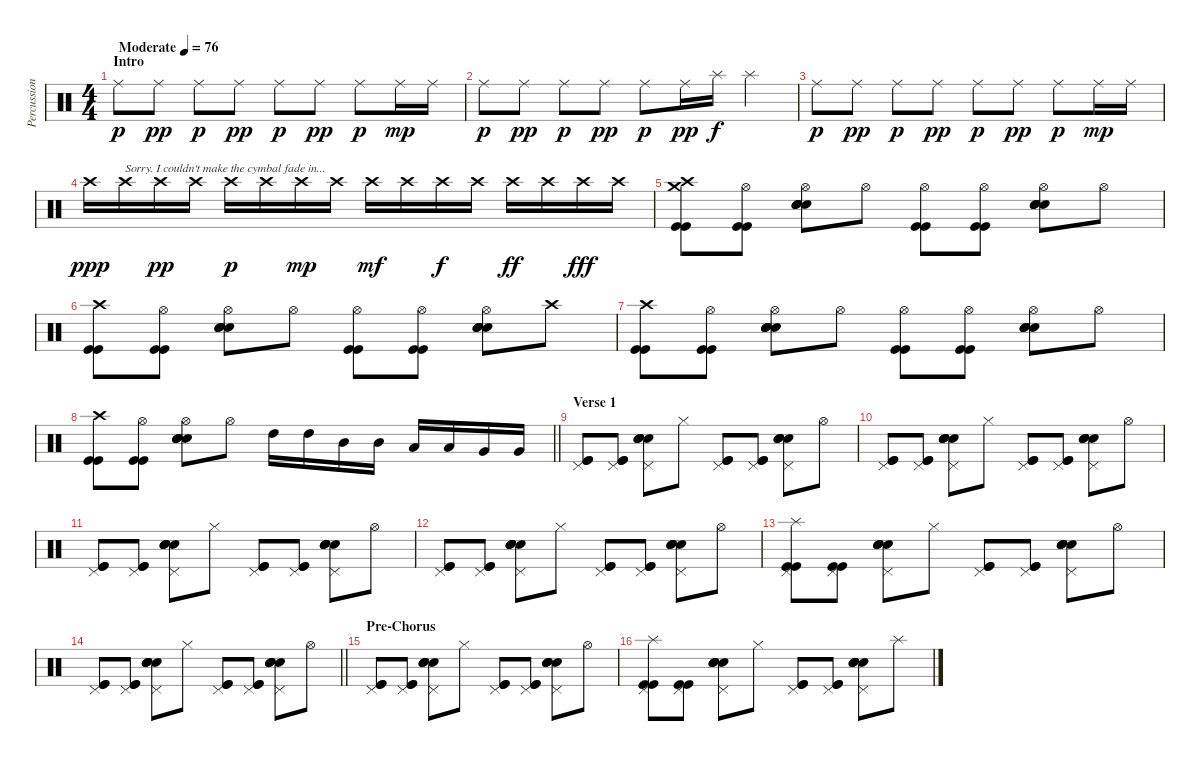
\track ("Percussion" "Percussion") {instrument percussion}
\staff {score}
\articulation defaults
\ts (4 4)
\section ("" "Intro")
\tempo (76 "Moderate")
\clef neutral
\ks c "Ride (middle)".8{dy p} "Ride (middle)".8{dy pp} "Ride (middle)".8{dy p} "Ride (middle)".8{dy pp} "Ride (middle)".8{dy p} "Ride (middle)".8{dy pp} "Ride (middle)".8{dy p} "Ride (middle)".16{dy mp} "Ride (middle)".16
|
"Ride (middle)".8{dy p} "Ride (middle)".8{dy pp} "Ride (middle)".8{dy p} "Ride (middle)".8{dy pp} "Ride (middle)".8{dy p} "Ride (middle)".16{dy pp} "Splash (hit)".16{dy f} "Splash (hit)".4 |
"Ride (middle)".8{dy p} "Ride (middle)".8{dy pp} "Ride (middle)".8{dy p} "Ride (middle)".8{dy pp} "Ride (middle)".8{dy p} "Ride (middle)".8{dy pp} "Ride (middle)".8{dy p} "Ride (middle)".16{dy mp} "Ride (middle)".16 |
"Crash high (hit)".16{dy ppp} "Crash high (hit)".16{txt "Sorry. I couldn't make the cymbal fade in..."} "Crash high (hit)".16{dy pp} "Crash high (hit)".16 "Crash high (hit)".16{dy p} "Crash high (hit)".16 "Crash high (hit)".16{dy mp} "Crash high (hit)".16 "Crash high (hit)".16{dy mf} "Crash high (hit)".16 "Crash high (hit)".16{dy f} "Crash high (hit)".16 "Crash high (hit)".16{dy ff} "Crash high (hit)".16 "Crash high (hit)".16{dy fff} "Crash high (hit)".16 |
("Crash high (hit)" "Crash medium (hit)" "Kick (hit)" "Kick (hit)").8 ("Hi-Hat (open)" "Kick (hit)" "Kick (hit)").8 ("Hi-Hat (open)" "Electric Snare (hit)" "Snare (hit) 2" "Snare (hit) 2" "Electric Snare (hit)").8 "Hi-Hat (open)".8 ("Hi-Hat (open)" "Kick (hit)" "Kick (hit)").8 ("Hi-Hat (open)" "Kick (hit)" "Kick (hit)").8 ("Hi-Hat (open)" "Electric Snare (hit)" "Snare (hit) 2" "Snare (hit) 2" "Electric Snare (hit)").8 "Hi-Hat (open)".8 |
("Crash high (hit)" "Kick (hit)" "Kick (hit)").8 ("Hi-Hat (open)" "Kick (hit)" "Kick (hit)").8 ("Hi-Hat (open)" "Electric Snare (hit)" "Snare (hit) 2" "Snare (hit) 2" "Electric Snare (hit)").8 "Hi-Hat (open)".8 ("Hi-Hat (open)" "Kick (hit)" "Kick (hit)").8 ("Hi-Hat (open)" "Kick (hit)" "Kick (hit)").8 ("Hi-Hat (open)" "Electric Snare (hit)" "Snare (hit) 2" "Snare (hit) 2" "Electric Snare (hit)").8 "Crash high (hit)".8 |
("Crash high (hit)" "Kick (hit)" "Kick (hit)").8 ("Hi-Hat (open)" "Kick (hit)" "Kick (hit)").8 ("Hi-Hat (open)" "Electric Snare (hit)" "Snare (hit) 2" "Snare (hit) 2" "Electric Snare (hit)").8 "Hi-Hat (open)".8 ("Hi-Hat (open)" "Kick (hit)" "Kick (hit)").8 ("Hi-Hat (open)" "Kick (hit)" "Kick (hit)").8 ("Hi-Hat (open)" "Electric Snare (hit)" "Snare (hit) 2" "Snare (hit) 2" "Electric Snare (hit)").8 "Hi-Hat (open)".8 |
\barLineRight lightlight
("Crash high (hit)" "Kick (hit)" "Kick (hit)").8 ("Hi-Hat (open)" "Kick (hit)" "Kick (hit)").8 ("Hi-Hat (open)" "Electric Snare (hit)" "Snare (hit) 2" "Snare (hit) 2" "Electric Snare (hit)").8 "Hi-Hat (open)".8 "High Tom (hit)".16 "High Tom (hit)".16 "Mid Tom (hit)".16 "Mid Tom (hit)".16 "Low Tom (hit)".16 "Low Tom (hit)".16 "Very Low Tom (hit)".16 "Very Low Tom (hit)".16 |
\section ("" "Verse 1")
("Pedal Hi-Hat (hit)" "Kick (hit)" "Kick (hit)").8 ("Pedal Hi-Hat (hit)" "Kick (hit)" "Kick (hit)").8 ("Pedal Hi-Hat (hit)" "Electric Snare (hit)" "Snare (hit) 2" "Snare (hit) 2" "Electric Snare (hit)").8 "Hi-Hat (closed)".8 ("Pedal Hi-Hat (hit)" "Kick (hit)" "Kick (hit)").8 ("Pedal Hi-Hat (hit)" "Kick (hit)" "Kick (hit)").8 ("Pedal Hi-Hat (hit)" "Electric Snare (hit)" "Snare (hit) 2" "Snare (hit) 2" "Electric Snare (hit)").8 "Hi-Hat (open)".8 |
("Pedal Hi-Hat (hit)" "Kick (hit)" "Kick (hit)").8 ("Pedal Hi-Hat (hit)" "Kick (hit)" "Kick (hit)").8 ("Pedal Hi-Hat (hit)" "Electric Snare (hit)" "Snare (hit) 2" "Snare (hit) 2" "Electric Snare (hit)").8 "Hi-Hat (closed)".8 ("Pedal Hi-Hat (hit)" "Kick (hit)" "Kick (hit)").8 ("Pedal Hi-Hat (hit)" "Kick (hit)" "Kick (hit)").8 ("Pedal Hi-Hat (hit)" "Electric Snare (hit)" "Snare (hit) 2" "Snare (hit) 2" "Electric Snare (hit)").8 "Hi-Hat (open)".8 |
("Pedal Hi-Hat (hit)" "Kick (hit)" "Kick (hit)").8 ("Pedal Hi-Hat (hit)" "Kick (hit)" "Kick (hit)").8 ("Pedal Hi-Hat (hit)" "Electric Snare (hit)" "Snare (hit) 2" "Snare (hit) 2" "Electric Snare (hit)").8 "Hi-Hat (closed)".8 ("Pedal Hi-Hat (hit)" "Kick (hit)" "Kick (hit)").8 ("Pedal Hi-Hat (hit)" "Kick (hit)" "Kick (hit)").8 ("Pedal Hi-Hat (hit)" "Electric Snare (hit)" "Snare (hit) 2" "Snare (hit) 2" "Electric Snare (hit)").8 "Hi-Hat (open)".8 |
("Pedal Hi-Hat (hit)" "Kick (hit)" "Kick (hit)").8 ("Pedal Hi-Hat (hit)" "Kick (hit)" "Kick (hit)").8 ("Pedal Hi-Hat (hit)" "Electric Snare (hit)" "Snare (hit) 2" "Snare (hit) 2" "Electric Snare (hit)").8 "Hi-Hat (closed)".8 ("Pedal Hi-Hat (hit)" "Kick (hit)" "Kick (hit)").8 ("Pedal Hi-Hat (hit)" "Kick (hit)" "Kick (hit)").8 ("Pedal Hi-Hat (hit)" "Electric Snare (hit)" "Snare (hit) 2" "Snare (hit) 2" "Electric Snare (hit)").8 "Hi-Hat (open)".8 |
("Pedal Hi-Hat (hit)" "Splash (hit)" "Kick (hit)" "Kick (hit)").8 ("Pedal Hi-Hat (hit)" "Kick (hit)" "Kick (hit)").8 ("Pedal Hi-Hat (hit)" "Electric Snare (hit)" "Snare (hit) 2" "Snare (hit) 2" "Electric Snare (hit)").8 "Hi-Hat (closed)".8 ("Pedal Hi-Hat (hit)" "Kick (hit)" "Kick (hit)").8 ("Pedal Hi-Hat (hit)" "Kick (hit)" "Kick (hit)").8 ("Pedal Hi-Hat (hit)" "Electric Snare (hit)" "Snare (hit) 2" "Snare (hit) 2" "Electric Snare (hit)").8 "Hi-Hat (open)".8 |
\barLineRight lightlight
("Pedal Hi-Hat (hit)" "Kick (hit)" "Kick (hit)").8 ("Pedal Hi-Hat (hit)" "Kick (hit)" "Kick (hit)").8 ("Pedal Hi-Hat (hit)" "Electric Snare (hit)" "Snare (hit) 2" "Snare (hit) 2" "Electric Snare (hit)").8 "Hi-Hat (closed)".8 ("Pedal Hi-Hat (hit)" "Kick (hit)" "Kick (hit)").8 ("Pedal Hi-Hat (hit)" "Kick (hit)" "Kick (hit)").8 ("Pedal Hi-Hat (hit)" "Electric Snare (hit)" "Snare (hit) 2" "Snare (hit) 2" "Electric Snare (hit)").8 "Hi-Hat (open)".8 |
\section ("" "Pre-Chorus")
("Pedal Hi-Hat (hit)" "Kick (hit)" "Kick (hit)").8 ("Pedal Hi-Hat (hit)" "Kick (hit)" "Kick (hit)").8 ("Pedal Hi-Hat (hit)" "Electric Snare (hit)" "Snare (hit) 2" "Snare (hit) 2" "Electric Snare (hit)").8 "Hi-Hat (closed)".8 ("Pedal Hi-Hat (hit)" "Kick (hit)" "Kick (hit)").8 ("Pedal Hi-Hat (hit)" "Kick (hit)" "Kick (hit)").8 ("Pedal Hi-Hat (hit)" "Electric Snare (hit)" "Snare (hit) 2" "Snare (hit) 2" "Electric Snare (hit)").8 "Hi-Hat (open)".8 |
("Pedal Hi-Hat (hit)" "Splash (hit)" "Kick (hit)" "Kick (hit)").8 ("Pedal Hi-Hat (hit)" "Kick (hit)" "Kick (hit)").8 ("Pedal Hi-Hat (hit)" "Electric Snare (hit)" "Snare (hit) 2" "Snare (hit) 2" "Electric Snare (hit)").8 "Hi-Hat (closed)".8 ("Pedal Hi-Hat (hit)" "Kick (hit)" "Kick (hit)").8 ("Pedal Hi-Hat (hit)" "Kick (hit)" "Kick (hit)").8 ("Pedal Hi-Hat (hit)" "Electric Snare (hit)" "Snare (hit) 2" "Snare (hit) 2" "Electric Snare (hit)").8 "Splash (hit)".8
